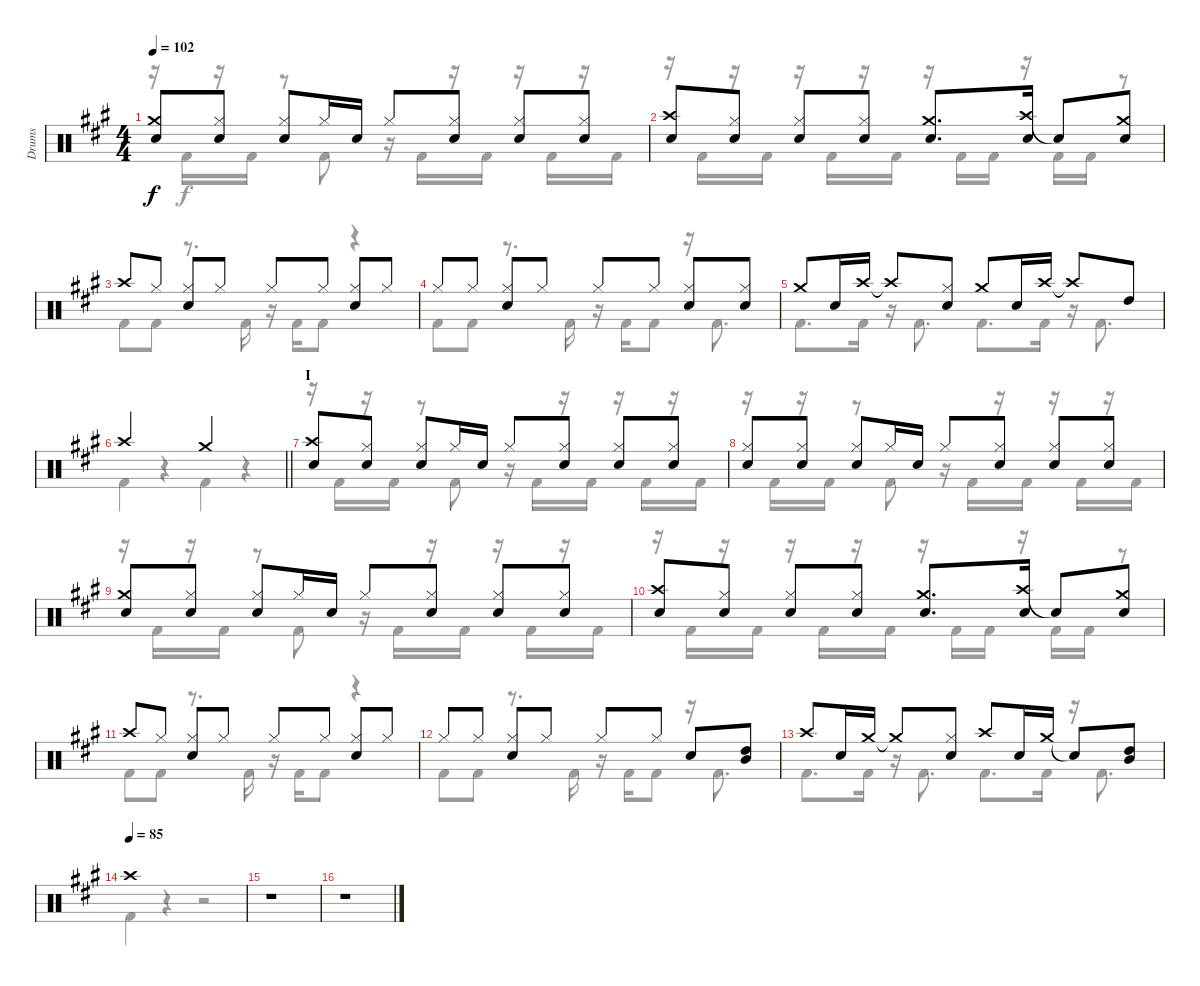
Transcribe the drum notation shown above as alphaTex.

\track ("Drums" "Drums") {instrument percussion}
\staff {score}
\articulation defaults
\voice
\ts (4 4)
\tempo 102
\clef neutral
\ks a
("Crash medium (hit)" "Snare (hit) 2").8{dy f} ("Hi-Hat (closed)" "Snare (hit) 2").8 ("Hi-Hat (closed)" "Snare (hit) 2").8 "Hi-Hat (closed)".16 "Snare (hit) 2".16 "Hi-Hat (closed)".8 ("Hi-Hat (closed)" "Snare (hit) 2").8 ("Hi-Hat (closed)" "Snare (hit) 2").8 ("Hi-Hat (closed)" "Snare (hit) 2").8 |
("Crash high (hit)" "Snare (hit) 2").8 ("Hi-Hat (closed)" "Snare (hit) 2").8 ("Hi-Hat (closed)" "Snare (hit) 2").8 ("Hi-Hat (closed)" "Snare (hit) 2").8 ("Crash medium (hit)" "Snare (hit) 2").8{d} ("Crash high (hit)" "Snare (hit) 2").16 "Snare (hit)"{t}.8 ("Crash medium (hit)" "Snare (hit) 2").8 |
"Crash high (hit)".8 "Hi-Hat (closed)".8 ("Hi-Hat (closed)" "Snare (hit) 2").8 "Hi-Hat (closed)".8 "Hi-Hat (closed)".8 "Hi-Hat (closed)".8 ("Hi-Hat (closed)" "Snare (hit) 2").8 "Hi-Hat (closed)".8 |
"Hi-Hat (closed)".8 "Hi-Hat (closed)".8 ("Hi-Hat (closed)" "Snare (hit) 2").8 "Hi-Hat (closed)".8 "Hi-Hat (closed)".8 "Hi-Hat (closed)".8 ("Hi-Hat (closed)" "Snare (hit) 2").8 ("Hi-Hat (closed)" "Snare (hit) 2").8 |
"Crash medium (hit)".8 "Snare (hit) 2".16 "Crash high (hit)".16 "Crash high (hit)"{t}.8 ("Hi-Hat (closed)" "Snare (hit) 2").8 "Crash medium (hit)".8 "Snare (hit) 2".16 "Crash high (hit)".16 "Crash high (hit)"{t}.8 "High Tom (hit)".8 |
\barLineRight lightlight "Crash high (hit)".2 "Crash medium (hit)".2
|
\section ("" "I")
("Crash high (hit)" "Snare (hit) 2").8 ("Hi-Hat (closed)" "Snare (hit) 2").8 ("Hi-Hat (closed)" "Snare (hit) 2").8 "Hi-Hat (closed)".16 "Snare (hit) 2".16 "Hi-Hat (closed)".8 ("Hi-Hat (closed)" "Snare (hit) 2").8 ("Hi-Hat (closed)" "Snare (hit) 2").8 ("Hi-Hat (closed)" "Snare (hit) 2").8 |
("Hi-Hat (closed)" "Snare (hit) 2").8 ("Hi-Hat (closed)" "Snare (hit) 2").8 ("Hi-Hat (closed)" "Snare (hit) 2").8 "Hi-Hat (closed)".16 "Snare (hit) 2".16 "Hi-Hat (closed)".8 ("Hi-Hat (closed)" "Snare (hit) 2").8 ("Hi-Hat (closed)" "Snare (hit) 2").8 ("Hi-Hat (closed)" "Snare (hit) 2").8 |
("Crash medium (hit)" "Snare (hit) 2").8 ("Hi-Hat (closed)" "Snare (hit) 2").8 ("Hi-Hat (closed)" "Snare (hit) 2").8 "Hi-Hat (closed)".16 "Snare (hit) 2".16 "Hi-Hat (closed)".8 ("Hi-Hat (closed)" "Snare (hit) 2").8 ("Hi-Hat (closed)" "Snare (hit) 2").8 ("Hi-Hat (closed)" "Snare (hit) 2").8 |
("Crash high (hit)" "Snare (hit) 2").8 ("Hi-Hat (closed)" "Snare (hit) 2").8 ("Hi-Hat (closed)" "Snare (hit) 2").8 ("Hi-Hat (closed)" "Snare (hit) 2").8 ("Crash medium (hit)" "Snare (hit) 2").8{d} ("Crash high (hit)" "Snare (hit) 2").16 "Snare (hit)"{t}.8 ("Crash medium (hit)" "Snare (hit) 2").8 |
"Crash high (hit)".8 "Hi-Hat (closed)".8 ("Hi-Hat (closed)" "Snare (hit) 2").8 "Hi-Hat (closed)".8 "Hi-Hat (closed)".8 "Hi-Hat (closed)".8 ("Hi-Hat (closed)" "Snare (hit) 2").8 "Hi-Hat (closed)".8 |
"Hi-Hat (closed)".8 "Hi-Hat (closed)".8 ("Hi-Hat (closed)" "Snare (hit) 2").8 "Hi-Hat (closed)".8 "Hi-Hat (closed)".8 "Hi-Hat (closed)".8 "Snare (hit) 2".8 ("High Tom (hit)" "Mid Tom (hit)").8 |
"Crash high (hit)".8 "Snare (hit) 2".16 "Crash medium (hit)".16 "Crash medium (hit)"{t}.8 ("Hi-Hat (closed)" "Snare (hit) 2").8 "Crash high (hit)".8 "Snare (hit) 2".16 "Crash medium (hit)".16 "Snare (hit)"{t}.8 ("High Tom (hit)" "Mid Tom (hit)").8 |
\tempo (85)
"Crash high (hit)".1 |
r.1 |
r.1
\voice
\clef neutral
\ottava regular
\simile none
\ks a
r.16{dy f} "Kick (hit) 2".16 r.16 "Kick (hit) 2".16 r.8 "Kick (hit) 2".8 r.16 "Kick (hit) 2".16 r.16 "Kick (hit) 2".16 r.16 "Kick (hit) 2".16 r.16 "Kick (hit) 2".16 |
r.16 "Kick (hit) 2".16 r.16 "Kick (hit) 2".16 r.16 "Kick (hit) 2".16 r.16 "Kick (hit) 2".16 r.16 "Kick (hit) 2".16 "Kick (hit) 2".16 r.16 "Kick (hit) 2".16 "Kick (hit) 2".16 r.8 |
"Kick (hit) 2".8 "Kick (hit) 2".8 r.8{d} "Kick (hit) 2".16 r.16 "Kick (hit) 2".16 "Kick (hit) 2".8 r.4 |
"Kick (hit) 2".8 "Kick (hit) 2".8 r.8{d} "Kick (hit) 2".16 r.16 "Kick (hit) 2".16 "Kick (hit) 2".8 r.16 "Kick (hit) 2".8{d} |
"Kick (hit) 2".8{d} "Kick (hit) 2".16 r.16 "Kick (hit) 2".8{d} "Kick (hit) 2".8{d} "Kick (hit) 2".16 r.16 "Kick (hit) 2".8{d} |
\barLineRight lightlight "Kick (hit) 2".4
r.4 "Kick (hit) 2".4 r.4 |
r.16 "Kick (hit) 2".16 r.16 "Kick (hit) 2".16 r.8 "Kick (hit) 2".8 r.16 "Kick (hit) 2".16 r.16 "Kick (hit) 2".16 r.16 "Kick (hit) 2".16 r.16 "Kick (hit) 2".16 |
r.16 "Kick (hit) 2".16 r.16 "Kick (hit) 2".16 r.8 "Kick (hit) 2".8 r.16 "Kick (hit) 2".16 r.16 "Kick (hit) 2".16 r.16 "Kick (hit) 2".16 r.16 "Kick (hit) 2".16 |
r.16 "Kick (hit) 2".16 r.16 "Kick (hit) 2".16 r.8 "Kick (hit) 2".8 r.16 "Kick (hit) 2".16 r.16 "Kick (hit) 2".16 r.16 "Kick (hit) 2".16 r.16 "Kick (hit) 2".16 |
r.16 "Kick (hit) 2".16 r.16 "Kick (hit) 2".16 r.16 "Kick (hit) 2".16 r.16 "Kick (hit) 2".16 r.16 "Kick (hit) 2".16 "Kick (hit) 2".16 r.16 "Kick (hit) 2".16 "Kick (hit) 2".16 r.8 |
"Kick (hit) 2".8 "Kick (hit) 2".8 r.8{d} "Kick (hit) 2".16 r.16 "Kick (hit) 2".16 "Kick (hit) 2".8 r.4 |
"Kick (hit) 2".8 "Kick (hit) 2".8 r.8{d} "Kick (hit) 2".16 r.16 "Kick (hit) 2".16 "Kick (hit) 2".8 r.16 "Kick (hit) 2".8{d} |
"Kick (hit) 2".8{d} "Kick (hit) 2".16 r.16 "Kick (hit) 2".8{d} "Kick (hit) 2".8{d} "Kick (hit) 2".16 r.16 "Kick (hit) 2".8{d} |
"Kick (hit) 2".4 r.4 r.2 |
r.1 |
r.1
